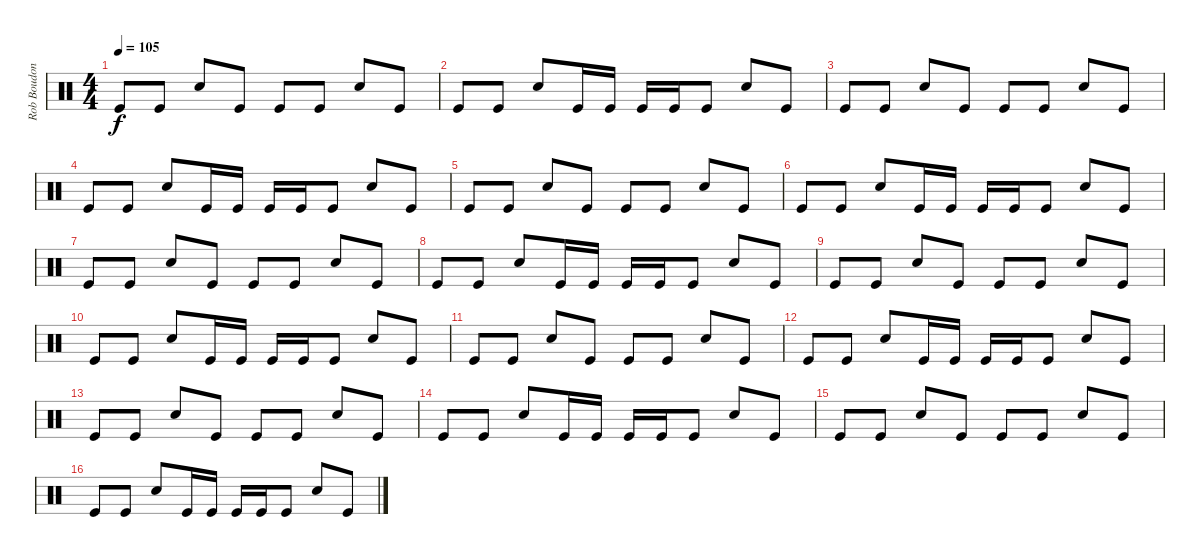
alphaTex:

\track ("Rob Boudon [Drums]" "Rob Boudon") {instrument percussion}
\staff {score}
\articulation defaults
\ts (4 4)
\tempo 105
\clef neutral
\ks c "Kick (hit)".8{dy f} "Kick (hit)".8 "Electric Snare (hit)".8 "Kick (hit)".8 "Kick (hit)".8 "Kick (hit)".8 "Electric Snare (hit)".8 "Kick (hit)".8
|
"Kick (hit)".8 "Kick (hit)".8 "Electric Snare (hit)".8 "Kick (hit)".16 "Kick (hit)".16 "Kick (hit)".16 "Kick (hit)".16 "Kick (hit)".8 "Electric Snare (hit)".8 "Kick (hit)".8 |
"Kick (hit)".8 "Kick (hit)".8 "Electric Snare (hit)".8 "Kick (hit)".8 "Kick (hit)".8 "Kick (hit)".8 "Electric Snare (hit)".8 "Kick (hit)".8 |
"Kick (hit)".8 "Kick (hit)".8 "Electric Snare (hit)".8 "Kick (hit)".16 "Kick (hit)".16 "Kick (hit)".16 "Kick (hit)".16 "Kick (hit)".8 "Electric Snare (hit)".8 "Kick (hit)".8 |
"Kick (hit)".8 "Kick (hit)".8 "Electric Snare (hit)".8 "Kick (hit)".8 "Kick (hit)".8 "Kick (hit)".8 "Electric Snare (hit)".8 "Kick (hit)".8 |
"Kick (hit)".8 "Kick (hit)".8 "Electric Snare (hit)".8 "Kick (hit)".16 "Kick (hit)".16 "Kick (hit)".16 "Kick (hit)".16 "Kick (hit)".8 "Electric Snare (hit)".8 "Kick (hit)".8 |
"Kick (hit)".8 "Kick (hit)".8 "Electric Snare (hit)".8 "Kick (hit)".8 "Kick (hit)".8 "Kick (hit)".8 "Electric Snare (hit)".8 "Kick (hit)".8 |
"Kick (hit)".8 "Kick (hit)".8 "Electric Snare (hit)".8 "Kick (hit)".16 "Kick (hit)".16 "Kick (hit)".16 "Kick (hit)".16 "Kick (hit)".8 "Electric Snare (hit)".8 "Kick (hit)".8 |
"Kick (hit)".8 "Kick (hit)".8 "Electric Snare (hit)".8 "Kick (hit)".8 "Kick (hit)".8 "Kick (hit)".8 "Electric Snare (hit)".8 "Kick (hit)".8 |
"Kick (hit)".8 "Kick (hit)".8 "Electric Snare (hit)".8 "Kick (hit)".16 "Kick (hit)".16 "Kick (hit)".16 "Kick (hit)".16 "Kick (hit)".8 "Electric Snare (hit)".8 "Kick (hit)".8 |
"Kick (hit)".8 "Kick (hit)".8 "Electric Snare (hit)".8 "Kick (hit)".8 "Kick (hit)".8 "Kick (hit)".8 "Electric Snare (hit)".8 "Kick (hit)".8 |
"Kick (hit)".8 "Kick (hit)".8 "Electric Snare (hit)".8 "Kick (hit)".16 "Kick (hit)".16 "Kick (hit)".16 "Kick (hit)".16 "Kick (hit)".8 "Electric Snare (hit)".8 "Kick (hit)".8 |
"Kick (hit)".8 "Kick (hit)".8 "Electric Snare (hit)".8 "Kick (hit)".8 "Kick (hit)".8 "Kick (hit)".8 "Electric Snare (hit)".8 "Kick (hit)".8 |
"Kick (hit)".8 "Kick (hit)".8 "Electric Snare (hit)".8 "Kick (hit)".16 "Kick (hit)".16 "Kick (hit)".16 "Kick (hit)".16 "Kick (hit)".8 "Electric Snare (hit)".8 "Kick (hit)".8 |
"Kick (hit)".8 "Kick (hit)".8 "Electric Snare (hit)".8 "Kick (hit)".8 "Kick (hit)".8 "Kick (hit)".8 "Electric Snare (hit)".8 "Kick (hit)".8 |
"Kick (hit)".8 "Kick (hit)".8 "Electric Snare (hit)".8 "Kick (hit)".16 "Kick (hit)".16 "Kick (hit)".16 "Kick (hit)".16 "Kick (hit)".8 "Electric Snare (hit)".8 "Kick (hit)".8
